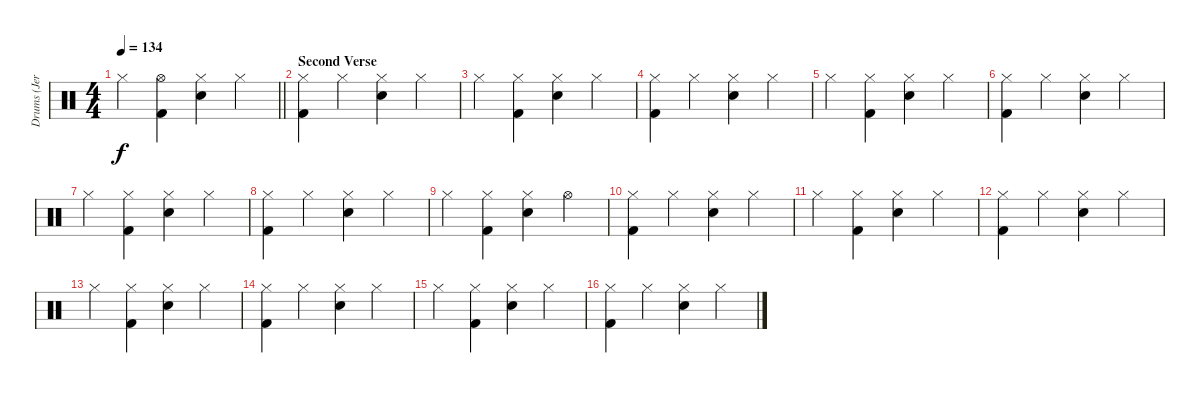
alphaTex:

\track ("Drums (Jeremy Taggart)" "Drums (Jer") {instrument percussion}
\staff
\articulation defaults
\ts (4 4)
\tempo 134
\clef neutral
\barLineRight lightlight
\ks c "Hi-Hat (closed)".4{dy f}
("Hi-Hat (open)" "Kick (hit) 2").4 ("Hi-Hat (closed)" "Snare (hit) 2").4 "Hi-Hat (closed)".4 |
\section ("" "Second Verse")
("Hi-Hat (closed)" "Kick (hit) 2").4 "Hi-Hat (closed)".4 ("Hi-Hat (closed)" "Snare (hit) 2").4 "Hi-Hat (closed)".4 |
"Hi-Hat (closed)".4 ("Hi-Hat (closed)" "Kick (hit) 2").4 ("Hi-Hat (closed)" "Snare (hit) 2").4 "Hi-Hat (closed)".4 |
("Hi-Hat (closed)" "Kick (hit) 2").4 "Hi-Hat (closed)".4 ("Hi-Hat (closed)" "Snare (hit) 2").4 "Hi-Hat (closed)".4 |
"Hi-Hat (closed)".4 ("Hi-Hat (closed)" "Kick (hit) 2").4 ("Hi-Hat (closed)" "Snare (hit) 2").4 "Hi-Hat (closed)".4 |
("Hi-Hat (closed)" "Kick (hit) 2").4 "Hi-Hat (closed)".4 ("Hi-Hat (closed)" "Snare (hit) 2").4 "Hi-Hat (closed)".4 |
"Hi-Hat (closed)".4 ("Hi-Hat (closed)" "Kick (hit) 2").4 ("Hi-Hat (closed)" "Snare (hit) 2").4 "Hi-Hat (closed)".4 |
("Hi-Hat (closed)" "Kick (hit) 2").4 "Hi-Hat (closed)".4 ("Hi-Hat (closed)" "Snare (hit) 2").4 "Hi-Hat (closed)".4 |
"Hi-Hat (closed)".4 ("Hi-Hat (closed)" "Kick (hit) 2").4 ("Hi-Hat (closed)" "Snare (hit) 2").4 "Hi-Hat (open)".4 |
("Hi-Hat (closed)" "Kick (hit) 2").4 "Hi-Hat (closed)".4 ("Hi-Hat (closed)" "Snare (hit) 2").4 "Hi-Hat (closed)".4 |
"Hi-Hat (closed)".4 ("Hi-Hat (closed)" "Kick (hit) 2").4 ("Hi-Hat (closed)" "Snare (hit) 2").4 "Hi-Hat (closed)".4 |
("Hi-Hat (closed)" "Kick (hit) 2").4 "Hi-Hat (closed)".4 ("Hi-Hat (closed)" "Snare (hit) 2").4 "Hi-Hat (closed)".4 |
"Hi-Hat (closed)".4 ("Hi-Hat (closed)" "Kick (hit) 2").4 ("Hi-Hat (closed)" "Snare (hit) 2").4 "Hi-Hat (closed)".4 |
("Hi-Hat (closed)" "Kick (hit) 2").4 "Hi-Hat (closed)".4 ("Hi-Hat (closed)" "Snare (hit) 2").4 "Hi-Hat (closed)".4 |
"Hi-Hat (closed)".4 ("Hi-Hat (closed)" "Kick (hit) 2").4 ("Hi-Hat (closed)" "Snare (hit) 2").4 "Hi-Hat (closed)".4 |
("Hi-Hat (closed)" "Kick (hit) 2").4 "Hi-Hat (closed)".4 ("Hi-Hat (closed)" "Snare (hit) 2").4 "Hi-Hat (closed)".4
